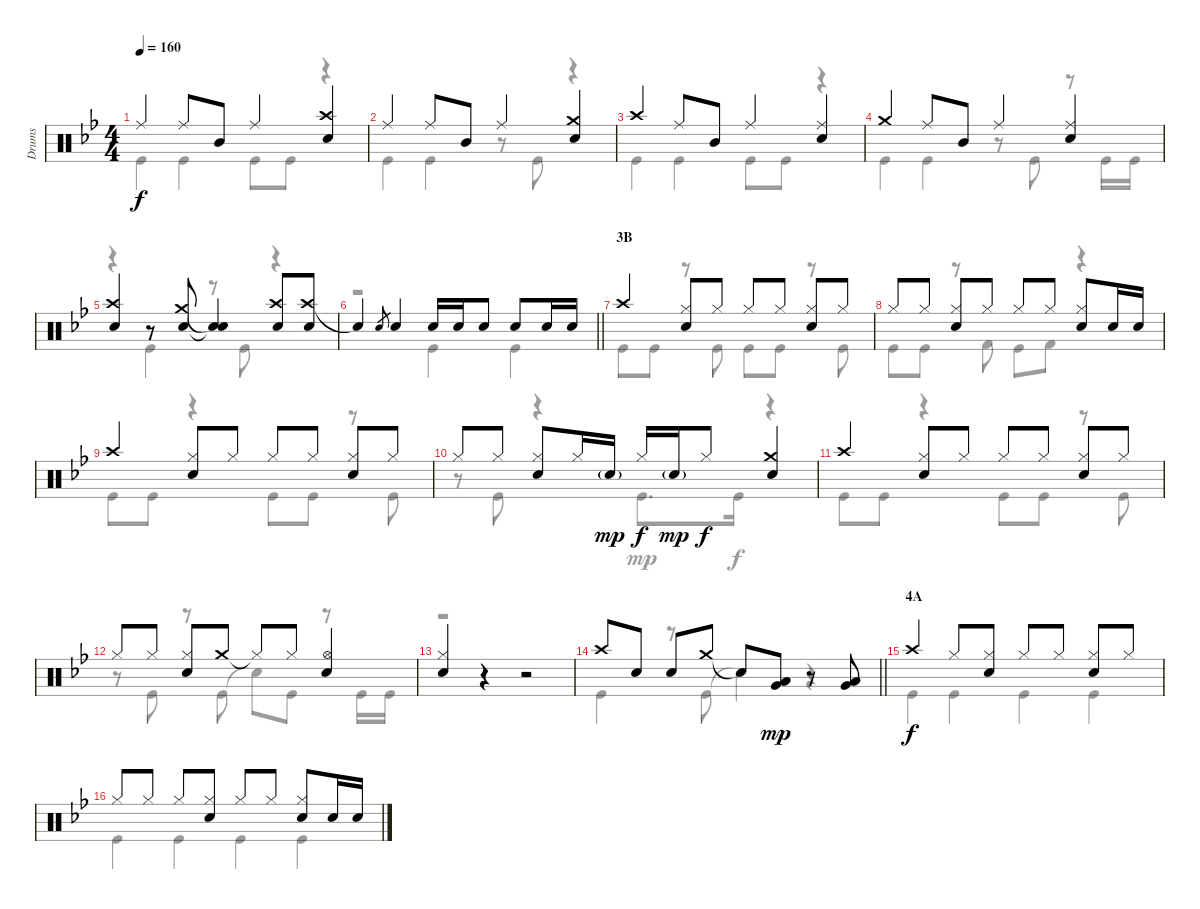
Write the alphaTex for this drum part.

\track ("Drums" "Drums") {instrument percussion}
\staff {score}
\articulation defaults
\voice
\ts (4 4)
\tempo 160
\clef neutral
\ks bb "Ride (middle)".4{dy f} "Ride (middle)".8 "Mid Tom (hit)".8 "Ride (middle)".4
("Crash high (hit)" "Snare (hit) 2").4 |
"Ride (middle)".4 "Ride (middle)".8 "Mid Tom (hit)".8 "Ride (middle)".4 ("Crash medium (hit)" "Snare (hit) 2").4 |
"Crash high (hit)".4 "Ride (middle)".8 "Mid Tom (hit)".8 "Ride (middle)".4 ("Ride (middle)" "Snare (hit) 2").4 |
"Crash medium (hit)".4 "Ride (middle)".8 "Mid Tom (hit)".8 "Ride (middle)".4 ("Ride (middle)" "Snare (hit) 2").4 |
("Crash high (hit)" "Snare (hit) 2").4 r.8 ("Crash medium (hit)" "Snare (hit) 2").8 ("Snare (hit)"{t} "Snare (hit)"{t}).4 ("Crash high (hit)" "Snare (hit) 2").8 ("Crash high (hit)" "Snare (hit) 2").8 |
\barLineRight lightlight "Snare (hit)"{t}.4 "Snare (hit) 2".8{gr} "Snare (hit) 2".4 "Snare (hit) 2".16 "Snare (hit) 2".16 "Snare (hit) 2".8 "Snare (hit) 2".8 "Snare (hit) 2".16 "Snare (hit) 2".16
|
\section ("" "3B")
"Crash high (hit)".4 ("Hi-Hat (closed)" "Snare (hit) 2").8 "Hi-Hat (closed)".8 "Hi-Hat (closed)".8 "Hi-Hat (closed)".8 ("Hi-Hat (closed)" "Snare (hit) 2").8 "Hi-Hat (closed)".8 |
"Hi-Hat (closed)".8 "Hi-Hat (closed)".8 ("Hi-Hat (closed)" "Snare (hit) 2").8 "Hi-Hat (closed)".8 "Hi-Hat (closed)".8 "Hi-Hat (closed)".8 ("Hi-Hat (closed)" "Snare (hit) 2").8 "Snare (hit) 2".16 "Snare (hit) 2".16 |
"Crash high (hit)".4 ("Hi-Hat (closed)" "Snare (hit) 2").8 "Hi-Hat (closed)".8 "Hi-Hat (closed)".8 "Hi-Hat (closed)".8 ("Hi-Hat (closed)" "Snare (hit) 2").8 "Hi-Hat (closed)".8 |
"Hi-Hat (closed)".8 "Hi-Hat (closed)".8 ("Hi-Hat (closed)" "Snare (hit) 2").8 "Hi-Hat (closed)".16 "Snare (hit) 2"{g}.16{dy mp} "Hi-Hat (closed)".16{dy f} "Snare (hit) 2"{g}.16{dy mp} "Hi-Hat (closed)".8{dy f} ("Crash medium (hit)" "Snare (hit) 2").4 |
"Crash high (hit)".4 ("Hi-Hat (closed)" "Snare (hit) 2").8 "Hi-Hat (closed)".8 "Hi-Hat (closed)".8 "Hi-Hat (closed)".8 ("Hi-Hat (closed)" "Snare (hit) 2").8 "Hi-Hat (closed)".8 |
"Hi-Hat (closed)".8 "Hi-Hat (closed)".8 ("Hi-Hat (closed)" "Snare (hit) 2").8 "Crash medium (hit)".8 "Hi-Hat (closed)"{t}.8 "Hi-Hat (closed)".8 ("Hi-Hat (open)" "Snare (hit) 2").4 |
("Hi-Hat (closed)" "Snare (hit) 2").4 r.4 r.2 |
\barLineRight lightlight "Crash high (hit)".8 "Snare (hit) 2".8 "Snare (hit) 2".8 "Crash medium (hit)".8 "Snare (hit)"{t}.8
("Low Tom (hit)" "Very Low Tom (hit)").8{dy mp} r.8 ("Low Tom (hit)" "Very Low Tom (hit)").8 |
\section ("" "4A")
"Crash high (hit)".4{dy f} "Hi-Hat (closed)".8 ("Hi-Hat (closed)" "Snare (hit) 2").8 "Hi-Hat (closed)".8 "Hi-Hat (closed)".8 ("Hi-Hat (closed)" "Snare (hit) 2").8 "Hi-Hat (closed)".8 |
"Hi-Hat (closed)".8 "Hi-Hat (closed)".8 "Hi-Hat (closed)".8 ("Hi-Hat (closed)" "Snare (hit) 2").8 "Hi-Hat (closed)".8 "Hi-Hat (closed)".8 ("Hi-Hat (closed)" "Snare (hit) 2").8 "Snare (hit) 2".16 "Snare (hit) 2".16
\voice
\clef neutral
\ottava regular
\simile none
\ks bb "Kick (hit)".4{dy f} "Kick (hit)".4 "Kick (hit)".8 "Kick (hit)".8
r.4 |
"Kick (hit)".4 "Kick (hit)".4 r.8 "Kick (hit)".8 r.4 |
"Kick (hit)".4 "Kick (hit)".4 "Kick (hit)".8 "Kick (hit)".8 r.4 |
"Kick (hit)".4 "Kick (hit)".4 r.8 "Kick (hit)".8 r.8 "Kick (hit)".16 "Kick (hit)".16 |
r.4 "Kick (hit)".4 r.8 "Kick (hit)".8 r.4 |
\barLineRight lightlight
r.2 "Kick (hit)".4 "Kick (hit)".4 |
"Kick (hit)".8 "Kick (hit)".8 r.8 "Kick (hit)".8 "Kick (hit)".8 "Kick (hit)".8 r.8 "Kick (hit)".8 |
"Kick (hit)".8 "Kick (hit)".8 r.8 "Kick (hit) 2".8 "Kick (hit)".8 "Kick (hit) 2".8 r.4 |
"Kick (hit)".8 "Kick (hit)".8 r.4 "Kick (hit)".8 "Kick (hit)".8 r.8 "Kick (hit)".8 |
r.8 "Kick (hit)".8 r.4 "Kick (hit)".8{d dy mp} "Kick (hit)".16{dy f} r.4 |
"Kick (hit)".8 "Kick (hit)".8 r.4 "Kick (hit)".8 "Kick (hit)".8 r.8 "Kick (hit)".8 |
r.8 "Kick (hit)".8 r.8 "Kick (hit)".8 "Snare (hit)"{t}.8 "Kick (hit)".8 r.8 "Kick (hit)".16 "Kick (hit)".16 |
r.1 |
\barLineRight lightlight "Kick (hit)".4
r.8 "Kick (hit)".8 "Snare (hit)"{t}.4 r.4 |
"Kick (hit)".4 "Kick (hit)".4 "Kick (hit)".4 "Kick (hit)".4 |
"Kick (hit)".4 "Kick (hit)".4 "Kick (hit)".4 "Kick (hit)".4
